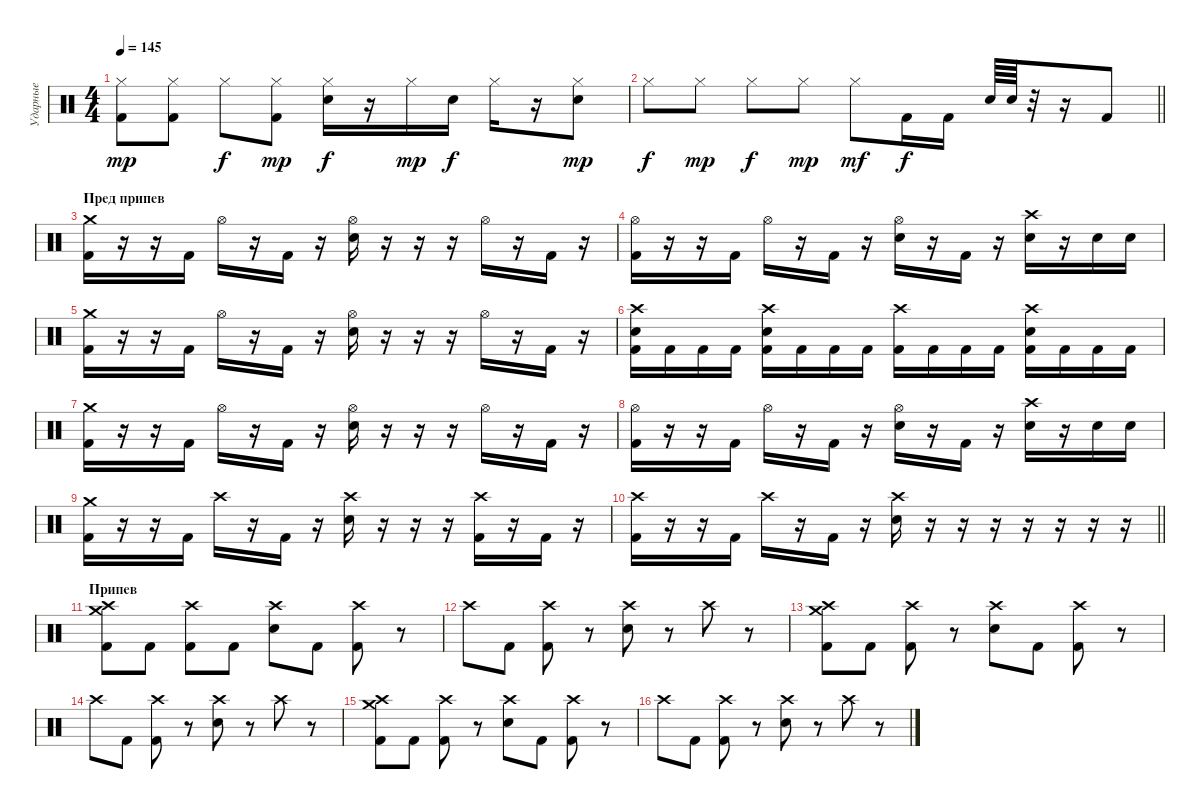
\track ("Ударные" "Ударные") {instrument percussion}
\staff {score}
\articulation defaults
\ts (4 4)
\tempo 145
\clef neutral
\ks c
("Hi-Hat (closed)" "Kick (hit) 2").8{dy mp} ("Hi-Hat (closed)" "Kick (hit) 2").8 "Hi-Hat (closed)".8{dy f} ("Hi-Hat (closed)" "Kick (hit) 2").8{dy mp} ("Hi-Hat (closed)" "Electric Snare (hit)").16{dy f} r.16 "Hi-Hat (closed)".16{dy mp} "Electric Snare (hit)".16{dy f} "Hi-Hat (closed)".16 r.16 ("Hi-Hat (closed)" "Electric Snare (hit)").8{dy mp} |
\barLineRight lightlight "Hi-Hat (closed)".8{dy f} "Hi-Hat (closed)".8{dy mp} "Hi-Hat (closed)".8{dy f} "Hi-Hat (closed)".8{dy mp} "Hi-Hat (closed)".8{dy mf} "Kick (hit) 2".16{dy f} "Kick (hit) 2".16 "Electric Snare (hit)".64 "Electric Snare (hit)".64
r.32 r.16 "Kick (hit) 2".8 |
\section ("" "Пред припев")
("Crash medium (hit)" "Kick (hit) 2").16 r.16 r.16 "Kick (hit) 2".16 "Hi-Hat (open)".16 r.16 "Kick (hit) 2".16 r.16 ("Hi-Hat (open)" "Electric Snare (hit)").16 r.16 r.16 r.16 "Hi-Hat (open)".16 r.16 "Kick (hit) 2".16 r.16 |
("Hi-Hat (open)" "Kick (hit) 2").16 r.16 r.16 "Kick (hit) 2".16 "Hi-Hat (open)".16 r.16 "Kick (hit) 2".16 r.16 ("Hi-Hat (open)" "Electric Snare (hit)").16 r.16 "Kick (hit) 2".16 r.16 ("Crash high (hit)" "Electric Snare (hit)").16 r.16 "Electric Snare (hit)".16 "Electric Snare (hit)".16 |
("Crash medium (hit)" "Kick (hit) 2").16 r.16 r.16 "Kick (hit) 2".16 "Hi-Hat (open)".16 r.16 "Kick (hit) 2".16 r.16 ("Hi-Hat (open)" "Electric Snare (hit)").16 r.16 r.16 r.16 "Hi-Hat (open)".16 r.16 "Kick (hit) 2".16 r.16 |
("Crash high (hit)" "Electric Snare (hit)" "Kick (hit) 2").16 "Kick (hit) 2".16 "Kick (hit) 2".16 "Kick (hit) 2".16 ("Crash high (hit)" "Electric Snare (hit)" "Kick (hit) 2").16 "Kick (hit) 2".16 "Kick (hit) 2".16 "Kick (hit) 2".16 ("Crash high (hit)" "Kick (hit) 2").16 "Kick (hit) 2".16 "Kick (hit) 2".16 "Kick (hit) 2".16 ("Crash high (hit)" "Electric Snare (hit)" "Kick (hit) 2").16 "Kick (hit) 2".16 "Kick (hit) 2".16 "Kick (hit) 2".16 |
("Crash medium (hit)" "Kick (hit) 2").16 r.16 r.16 "Kick (hit) 2".16 "Hi-Hat (open)".16 r.16 "Kick (hit) 2".16 r.16 ("Hi-Hat (open)" "Electric Snare (hit)").16 r.16 r.16 r.16 "Hi-Hat (open)".16 r.16 "Kick (hit) 2".16 r.16 |
("Hi-Hat (open)" "Kick (hit) 2").16 r.16 r.16 "Kick (hit) 2".16 "Hi-Hat (open)".16 r.16 "Kick (hit) 2".16 r.16 ("Hi-Hat (open)" "Electric Snare (hit)").16 r.16 "Kick (hit) 2".16 r.16 ("Crash high (hit)" "Electric Snare (hit)").16 r.16 "Electric Snare (hit)".16 "Electric Snare (hit)".16 |
("Crash medium (hit)" "Kick (hit) 2").16 r.16 r.16 "Kick (hit) 2".16 "Crash high (hit)".16 r.16 "Kick (hit) 2".16 r.16 ("Crash high (hit)" "Electric Snare (hit)").16 r.16 r.16 r.16 ("Crash high (hit)" "Kick (hit) 2").16 r.16 "Kick (hit) 2".16 r.16 |
\barLineRight lightlight
("Crash high (hit)" "Kick (hit) 2").16 r.16 r.16 "Kick (hit) 2".16 "Crash high (hit)".16 r.16 "Kick (hit) 2".16 r.16 ("Crash high (hit)" "Electric Snare (hit)").16 r.16 r.16 r.16 r.16 r.16 r.16 r.16 |
\section ("" "Припев")
("Crash medium (hit)" "Crash high (hit)" "Kick (hit) 2").8 "Kick (hit) 2".8 ("Crash high (hit)" "Kick (hit) 2").8 "Kick (hit) 2".8 ("Crash high (hit)" "Electric Snare (hit)").8 "Kick (hit) 2".8 ("Crash high (hit)" "Kick (hit) 2").8 r.8 |
"Crash high (hit)".8 "Kick (hit) 2".8 ("Crash high (hit)" "Kick (hit) 2").8 r.8 ("Crash high (hit)" "Electric Snare (hit)").8 r.8 "Crash high (hit)".8 r.8 |
("Crash medium (hit)" "Crash high (hit)" "Kick (hit) 2").8 "Kick (hit) 2".8 ("Crash high (hit)" "Kick (hit) 2").8 r.8 ("Crash high (hit)" "Electric Snare (hit)").8 "Kick (hit) 2".8 ("Crash high (hit)" "Kick (hit) 2").8 r.8 |
"Crash high (hit)".8 "Kick (hit) 2".8 ("Crash high (hit)" "Kick (hit) 2").8 r.8 ("Crash high (hit)" "Electric Snare (hit)").8 r.8 "Crash high (hit)".8 r.8 |
("Crash medium (hit)" "Crash high (hit)" "Kick (hit) 2").8 "Kick (hit) 2".8 ("Crash high (hit)" "Kick (hit) 2").8 r.8 ("Crash high (hit)" "Electric Snare (hit)").8 "Kick (hit) 2".8 ("Crash high (hit)" "Kick (hit) 2").8 r.8 |
"Crash high (hit)".8 "Kick (hit) 2".8 ("Crash high (hit)" "Kick (hit) 2").8 r.8 ("Crash high (hit)" "Electric Snare (hit)").8 r.8 "Crash high (hit)".8 r.8
